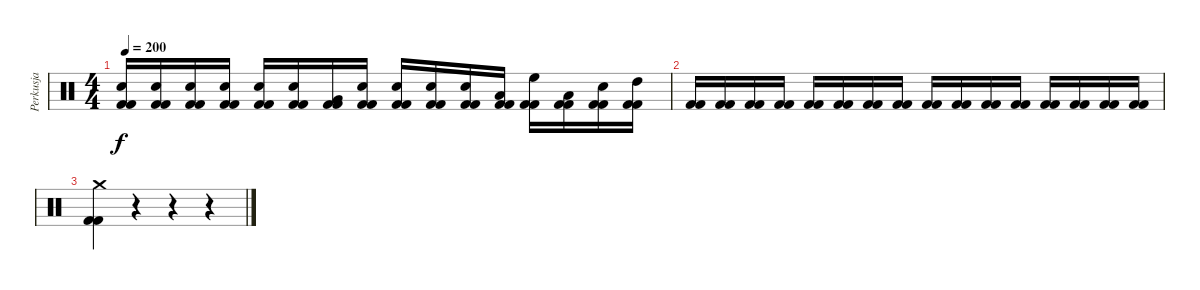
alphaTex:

\track ("Perkusja" "Perkusja") {instrument percussion}
\staff {score}
\articulation defaults
\ts (4 4)
\tempo 200
\clef neutral
\ks c
("Snare (hit) 2" "Kick (hit) 2" "Kick (hit) 2").16{dy f} ("Snare (hit) 2" "Kick (hit) 2" "Kick (hit) 2").16 ("Electric Snare (hit)" "Kick (hit) 2" "Kick (hit) 2").16 ("Electric Snare (hit)" "Kick (hit) 2" "Kick (hit) 2").16 ("Electric Snare (hit)" "Kick (hit) 2" "Kick (hit) 2").16 ("Electric Snare (hit)" "Kick (hit) 2" "Kick (hit) 2").16 ("Very Low Tom (hit)" "Kick (hit) 2" "Kick (hit) 2").16 ("Electric Snare (hit)" "Kick (hit) 2" "Kick (hit) 2").16 ("Electric Snare (hit)" "Kick (hit) 2" "Kick (hit) 2").16 ("Snare (hit) 2" "Kick (hit) 2" "Kick (hit) 2").16 ("Electric Snare (hit)" "Kick (hit) 2" "Kick (hit) 2").16 ("Low Floor Tom (hit)" "Kick (hit) 2" "Kick (hit) 2").16 ("High Floor Tom (hit)" "Kick (hit) 2" "Kick (hit) 2").16 ("Low Floor Tom (hit)" "Kick (hit) 2" "Kick (hit) 2").16 ("Electric Snare (hit)" "Kick (hit) 2" "Kick (hit) 2").16 ("High Tom (hit)" "Kick (hit) 2" "Kick (hit) 2").16 |
("Kick (hit) 2" "Kick (hit) 2").16 ("Kick (hit) 2" "Kick (hit) 2").16 ("Kick (hit) 2" "Kick (hit) 2").16 ("Kick (hit) 2" "Kick (hit) 2").16 ("Kick (hit) 2" "Kick (hit) 2").16 ("Kick (hit) 2" "Kick (hit) 2").16 ("Kick (hit) 2" "Kick (hit) 2").16 ("Kick (hit) 2" "Kick (hit) 2").16 ("Kick (hit) 2" "Kick (hit) 2").16 ("Kick (hit) 2" "Kick (hit) 2").16 ("Kick (hit) 2" "Kick (hit) 2").16 ("Kick (hit) 2" "Kick (hit) 2").16 ("Kick (hit) 2" "Kick (hit) 2").16 ("Kick (hit) 2" "Kick (hit) 2").16 ("Kick (hit) 2" "Kick (hit) 2").16 ("Kick (hit) 2" "Kick (hit) 2").16 |
("Crash medium (hit)" "Kick (hit) 2" "Kick (hit) 2").4 r.4 r.4 r.4
